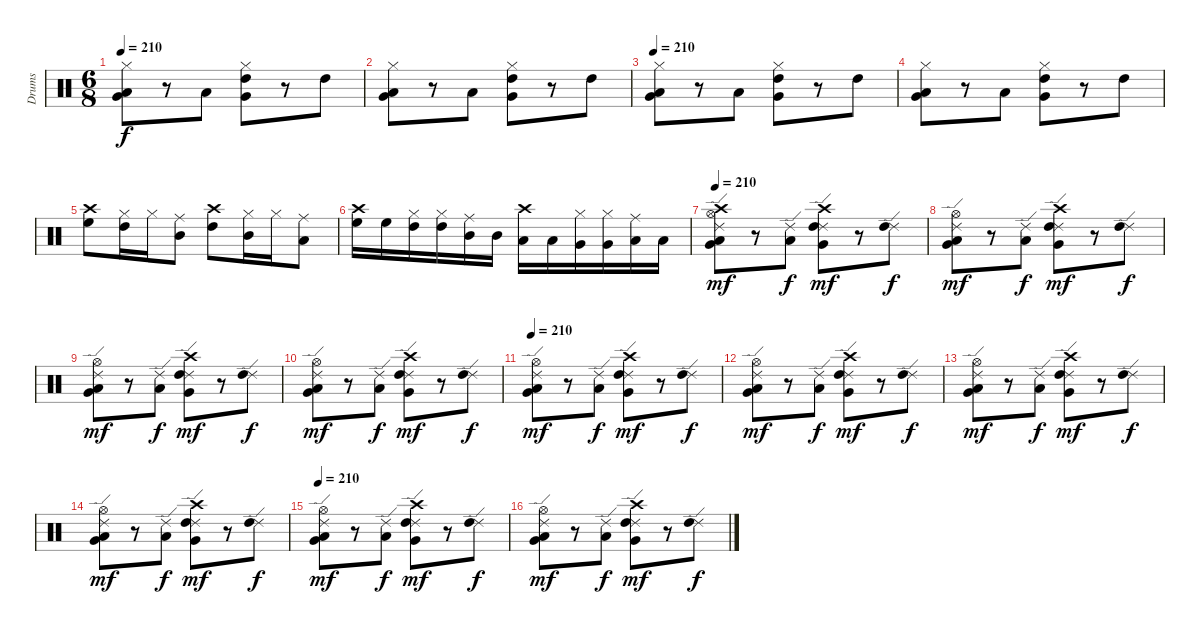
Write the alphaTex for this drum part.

\track ("Drums" "Drums") {instrument percussion}
\staff {score}
\articulation defaults
\ts (6 8)
\tempo 210
\clef neutral
\ks c
("Hi-Hat (closed)" "Low Tom (hit)" "Very Low Tom (hit)").8{dy f} r.8 "Low Tom (hit)".8 ("Hi-Hat (closed)" "High Tom (hit)" "Very Low Tom (hit)").8 r.8 "High Tom (hit)".8 |
("Hi-Hat (closed)" "Low Tom (hit)" "Very Low Tom (hit)").8 r.8 "Low Tom (hit)".8 ("Hi-Hat (closed)" "High Tom (hit)" "Very Low Tom (hit)").8 r.8 "High Tom (hit)".8 |
\tempo 210
("Hi-Hat (closed)" "Low Tom (hit)" "Very Low Tom (hit)").8 r.8 "Low Tom (hit)".8 ("Hi-Hat (closed)" "High Tom (hit)" "Very Low Tom (hit)").8 r.8 "High Tom (hit)".8 |
("Hi-Hat (closed)" "Low Tom (hit)" "Very Low Tom (hit)").8 r.8 "Low Tom (hit)".8 ("Hi-Hat (closed)" "High Tom (hit)" "Very Low Tom (hit)").8 r.8 "High Tom (hit)".8 |
("Crash high (hit)" "High Floor Tom (hit)").8 ("Hi-Hat (closed)" "High Tom (hit)").16 "Hi-Hat (closed)".16 ("Ride (middle)" "Mid Tom (hit)").8 ("Crash high (hit)" "High Tom (hit)").8 ("Hi-Hat (closed)" "Mid Tom (hit)").16 "Hi-Hat (closed)".16 ("Ride (middle)" "Low Tom (hit)").8 |
("Crash high (hit)" "High Floor Tom (hit)").16 "High Floor Tom (hit)".16 ("Hi-Hat (closed)" "High Tom (hit)").16 ("Hi-Hat (closed)" "High Tom (hit)").16 ("Ride (middle)" "Mid Tom (hit)").16 "Mid Tom (hit)".16 ("Crash high (hit)" "Low Tom (hit)").16 "Low Tom (hit)".16 ("Hi-Hat (closed)" "Very Low Tom (hit)").16 ("Hi-Hat (closed)" "Very Low Tom (hit)").16 ("Ride (middle)" "Low Floor Tom (hit)").16 "Low Floor Tom (hit)".16 |
\tempo 210
("Ride (edge) 2" "Hi-Hat (open)" "Crash high (hit)" "Low Tom (hit)" "Very Low Tom (hit)").8{dy mf} r.8 ("Ride (edge) 2" "Low Tom (hit)").8{dy f} ("Ride (edge) 2" "Crash high (hit)" "High Tom (hit)" "Very Low Tom (hit)").8{dy mf} r.8 ("Ride (edge) 2" "High Tom (hit)").8{dy f} |
("Ride (edge) 2" "Hi-Hat (open)" "Low Tom (hit)" "Very Low Tom (hit)").8{dy mf} r.8 ("Ride (edge) 2" "Low Tom (hit)").8{dy f} ("Ride (edge) 2" "Crash high (hit)" "High Tom (hit)" "Very Low Tom (hit)").8{dy mf} r.8 ("Ride (edge) 2" "High Tom (hit)").8{dy f} |
("Ride (edge) 2" "Hi-Hat (open)" "Low Tom (hit)" "Very Low Tom (hit)").8{dy mf} r.8 ("Ride (edge) 2" "Low Tom (hit)").8{dy f} ("Ride (edge) 2" "Crash high (hit)" "High Tom (hit)" "Very Low Tom (hit)").8{dy mf} r.8 ("Ride (edge) 2" "High Tom (hit)").8{dy f} |
("Ride (edge) 2" "Hi-Hat (open)" "Low Tom (hit)" "Very Low Tom (hit)").8{dy mf} r.8 ("Ride (edge) 2" "Low Tom (hit)").8{dy f} ("Ride (edge) 2" "Crash high (hit)" "High Tom (hit)" "Very Low Tom (hit)").8{dy mf} r.8 ("Ride (edge) 2" "High Tom (hit)").8{dy f} |
\tempo 210
("Ride (edge) 2" "Hi-Hat (open)" "Low Tom (hit)" "Very Low Tom (hit)").8{dy mf} r.8 ("Ride (edge) 2" "Low Tom (hit)").8{dy f} ("Ride (edge) 2" "Crash high (hit)" "High Tom (hit)" "Very Low Tom (hit)").8{dy mf} r.8 ("Ride (edge) 2" "High Tom (hit)").8{dy f} |
("Ride (edge) 2" "Hi-Hat (open)" "Low Tom (hit)" "Very Low Tom (hit)").8{dy mf} r.8 ("Ride (edge) 2" "Low Tom (hit)").8{dy f} ("Ride (edge) 2" "Crash high (hit)" "High Tom (hit)" "Very Low Tom (hit)").8{dy mf} r.8 ("Ride (edge) 2" "High Tom (hit)").8{dy f} |
("Ride (edge) 2" "Hi-Hat (open)" "Low Tom (hit)" "Very Low Tom (hit)").8{dy mf} r.8 ("Ride (edge) 2" "Low Tom (hit)").8{dy f} ("Ride (edge) 2" "Crash high (hit)" "High Tom (hit)" "Very Low Tom (hit)").8{dy mf} r.8 ("Ride (edge) 2" "High Tom (hit)").8{dy f} |
("Ride (edge) 2" "Hi-Hat (open)" "Low Tom (hit)" "Very Low Tom (hit)").8{dy mf} r.8 ("Ride (edge) 2" "Low Tom (hit)").8{dy f} ("Ride (edge) 2" "Crash high (hit)" "High Tom (hit)" "Very Low Tom (hit)").8{dy mf} r.8 ("Ride (edge) 2" "High Tom (hit)").8{dy f} |
\tempo 210
("Ride (edge) 2" "Hi-Hat (open)" "Low Tom (hit)" "Very Low Tom (hit)").8{dy mf} r.8 ("Ride (edge) 2" "Low Tom (hit)").8{dy f} ("Ride (edge) 2" "Crash high (hit)" "High Tom (hit)" "Very Low Tom (hit)").8{dy mf} r.8 ("Ride (edge) 2" "High Tom (hit)").8{dy f} |
("Ride (edge) 2" "Hi-Hat (open)" "Low Tom (hit)" "Very Low Tom (hit)").8{dy mf} r.8 ("Ride (edge) 2" "Low Tom (hit)").8{dy f} ("Ride (edge) 2" "Crash high (hit)" "High Tom (hit)" "Very Low Tom (hit)").8{dy mf} r.8 ("Ride (edge) 2" "High Tom (hit)").8{dy f}
